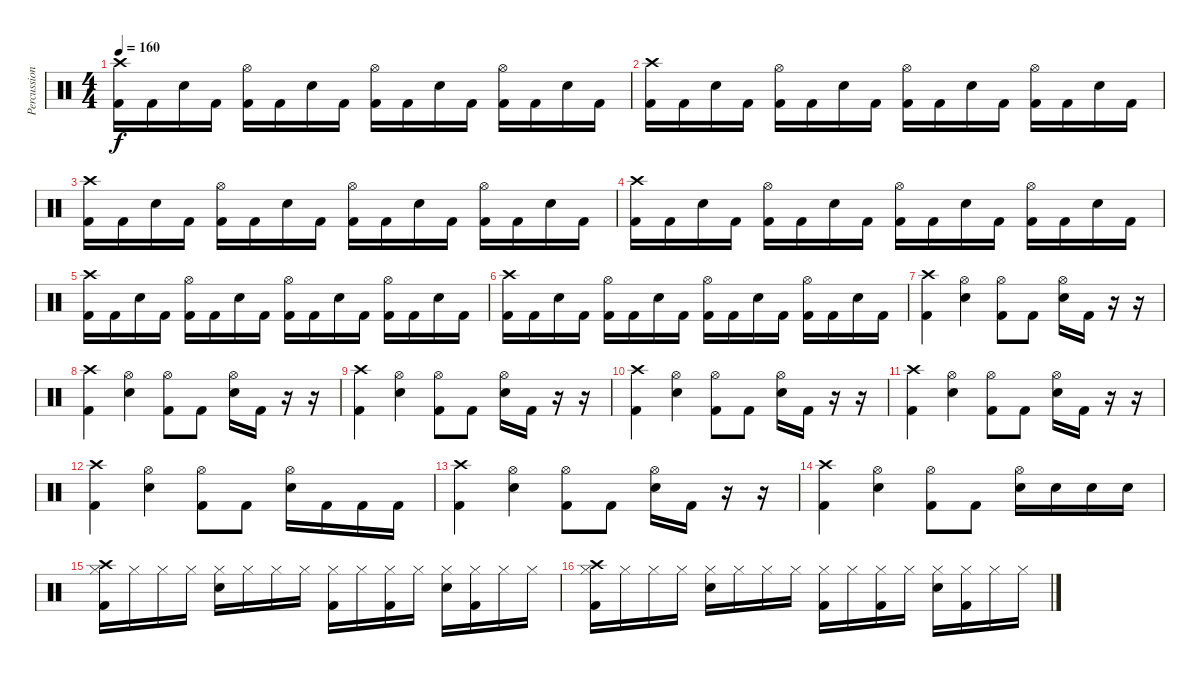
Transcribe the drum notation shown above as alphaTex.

\track ("Percussion" "Percussion") {instrument percussion}
\staff {score}
\articulation defaults
\ts (4 4)
\tempo 160
\clef neutral
\ks c
("Crash high (hit)" "Kick (hit) 2").16{dy f} "Kick (hit) 2".16 "Electric Snare (hit)".16 "Kick (hit) 2".16 ("Hi-Hat (open)" "Kick (hit) 2").16 "Kick (hit) 2".16 "Electric Snare (hit)".16 "Kick (hit) 2".16 ("Hi-Hat (open)" "Kick (hit) 2").16 "Kick (hit) 2".16 "Electric Snare (hit)".16 "Kick (hit) 2".16 ("Hi-Hat (open)" "Kick (hit) 2").16 "Kick (hit) 2".16 "Electric Snare (hit)".16 "Kick (hit) 2".16 |
("Crash high (hit)" "Kick (hit) 2").16 "Kick (hit) 2".16 "Electric Snare (hit)".16 "Kick (hit) 2".16 ("Hi-Hat (open)" "Kick (hit) 2").16 "Kick (hit) 2".16 "Electric Snare (hit)".16 "Kick (hit) 2".16 ("Hi-Hat (open)" "Kick (hit) 2").16 "Kick (hit) 2".16 "Electric Snare (hit)".16 "Kick (hit) 2".16 ("Hi-Hat (open)" "Kick (hit) 2").16 "Kick (hit) 2".16 "Electric Snare (hit)".16 "Kick (hit) 2".16 |
("Crash high (hit)" "Kick (hit) 2").16 "Kick (hit) 2".16 "Electric Snare (hit)".16 "Kick (hit) 2".16 ("Hi-Hat (open)" "Kick (hit) 2").16 "Kick (hit) 2".16 "Electric Snare (hit)".16 "Kick (hit) 2".16 ("Hi-Hat (open)" "Kick (hit) 2").16 "Kick (hit) 2".16 "Electric Snare (hit)".16 "Kick (hit) 2".16 ("Hi-Hat (open)" "Kick (hit) 2").16 "Kick (hit) 2".16 "Electric Snare (hit)".16 "Kick (hit) 2".16 |
("Crash high (hit)" "Kick (hit) 2").16 "Kick (hit) 2".16 "Electric Snare (hit)".16 "Kick (hit) 2".16 ("Hi-Hat (open)" "Kick (hit) 2").16 "Kick (hit) 2".16 "Electric Snare (hit)".16 "Kick (hit) 2".16 ("Hi-Hat (open)" "Kick (hit) 2").16 "Kick (hit) 2".16 "Electric Snare (hit)".16 "Kick (hit) 2".16 ("Hi-Hat (open)" "Kick (hit) 2").16 "Kick (hit) 2".16 "Electric Snare (hit)".16 "Kick (hit) 2".16 |
("Crash high (hit)" "Kick (hit) 2").16 "Kick (hit) 2".16 "Electric Snare (hit)".16 "Kick (hit) 2".16 ("Hi-Hat (open)" "Kick (hit) 2").16 "Kick (hit) 2".16 "Electric Snare (hit)".16 "Kick (hit) 2".16 ("Hi-Hat (open)" "Kick (hit) 2").16 "Kick (hit) 2".16 "Electric Snare (hit)".16 "Kick (hit) 2".16 ("Hi-Hat (open)" "Kick (hit) 2").16 "Kick (hit) 2".16 "Electric Snare (hit)".16 "Kick (hit) 2".16 |
("Crash high (hit)" "Kick (hit) 2").16 "Kick (hit) 2".16 "Electric Snare (hit)".16 "Kick (hit) 2".16 ("Hi-Hat (open)" "Kick (hit) 2").16 "Kick (hit) 2".16 "Electric Snare (hit)".16 "Kick (hit) 2".16 ("Hi-Hat (open)" "Kick (hit) 2").16 "Kick (hit) 2".16 "Electric Snare (hit)".16 "Kick (hit) 2".16 ("Hi-Hat (open)" "Kick (hit) 2").16 "Kick (hit) 2".16 "Electric Snare (hit)".16 "Kick (hit) 2".16 |
("Crash high (hit)" "Kick (hit) 2").4 ("Hi-Hat (open)" "Electric Snare (hit)").4 ("Hi-Hat (open)" "Kick (hit) 2").8 "Kick (hit) 2".8 ("Hi-Hat (open)" "Electric Snare (hit)").16 "Kick (hit) 2".16 r.16 r.16 |
("Crash high (hit)" "Kick (hit) 2").4 ("Hi-Hat (open)" "Electric Snare (hit)").4 ("Hi-Hat (open)" "Kick (hit) 2").8 "Kick (hit) 2".8 ("Hi-Hat (open)" "Electric Snare (hit)").16 "Kick (hit) 2".16 r.16 r.16 |
("Crash high (hit)" "Kick (hit) 2").4 ("Hi-Hat (open)" "Electric Snare (hit)").4 ("Hi-Hat (open)" "Kick (hit) 2").8 "Kick (hit) 2".8 ("Hi-Hat (open)" "Electric Snare (hit)").16 "Kick (hit) 2".16 r.16 r.16 |
("Crash high (hit)" "Kick (hit) 2").4 ("Hi-Hat (open)" "Electric Snare (hit)").4 ("Hi-Hat (open)" "Kick (hit) 2").8 "Kick (hit) 2".8 ("Hi-Hat (open)" "Electric Snare (hit)").16 "Kick (hit) 2".16 r.16 r.16 |
("Crash high (hit)" "Kick (hit) 2").4 ("Hi-Hat (open)" "Electric Snare (hit)").4 ("Hi-Hat (open)" "Kick (hit) 2").8 "Kick (hit) 2".8 ("Hi-Hat (open)" "Electric Snare (hit)").16 "Kick (hit) 2".16 r.16 r.16 |
("Crash high (hit)" "Kick (hit) 2").4 ("Hi-Hat (open)" "Electric Snare (hit)").4 ("Hi-Hat (open)" "Kick (hit) 2").8 "Kick (hit) 2".8 ("Hi-Hat (open)" "Electric Snare (hit)").16 "Kick (hit) 2".16 "Kick (hit) 2".16 "Kick (hit) 2".16 |
("Crash high (hit)" "Kick (hit) 2").4 ("Hi-Hat (open)" "Electric Snare (hit)").4 ("Hi-Hat (open)" "Kick (hit) 2").8 "Kick (hit) 2".8 ("Hi-Hat (open)" "Electric Snare (hit)").16 "Kick (hit) 2".16 r.16 r.16 |
("Crash high (hit)" "Kick (hit) 2").4 ("Hi-Hat (open)" "Electric Snare (hit)").4 ("Hi-Hat (open)" "Kick (hit) 2").8 "Kick (hit) 2".8 ("Hi-Hat (open)" "Electric Snare (hit)").16 "Electric Snare (hit)".16 "Electric Snare (hit)".16 "Electric Snare (hit)".16 |
("Kick (hit) 2" "Hi-Hat (closed)" "Crash high (hit)").16 "Hi-Hat (closed)".16 "Hi-Hat (closed)".16 "Hi-Hat (closed)".16 ("Electric Snare (hit)" "Hi-Hat (closed)").16 "Hi-Hat (closed)".16 "Hi-Hat (closed)".16 "Hi-Hat (closed)".16 ("Kick (hit) 2" "Hi-Hat (closed)").16 "Hi-Hat (closed)".16 ("Kick (hit) 2" "Hi-Hat (closed)").16 "Hi-Hat (closed)".16 ("Electric Snare (hit)" "Hi-Hat (closed)").16 ("Kick (hit) 2" "Hi-Hat (closed)").16 "Hi-Hat (closed)".16 "Hi-Hat (closed)".16 |
("Kick (hit) 2" "Hi-Hat (closed)" "Crash high (hit)").16 "Hi-Hat (closed)".16 "Hi-Hat (closed)".16 "Hi-Hat (closed)".16 ("Electric Snare (hit)" "Hi-Hat (closed)").16 "Hi-Hat (closed)".16 "Hi-Hat (closed)".16 "Hi-Hat (closed)".16 ("Kick (hit) 2" "Hi-Hat (closed)").16 "Hi-Hat (closed)".16 ("Kick (hit) 2" "Hi-Hat (closed)").16 "Hi-Hat (closed)".16 ("Electric Snare (hit)" "Hi-Hat (closed)").16 ("Kick (hit) 2" "Hi-Hat (closed)").16 "Hi-Hat (closed)".16 "Hi-Hat (closed)".16
